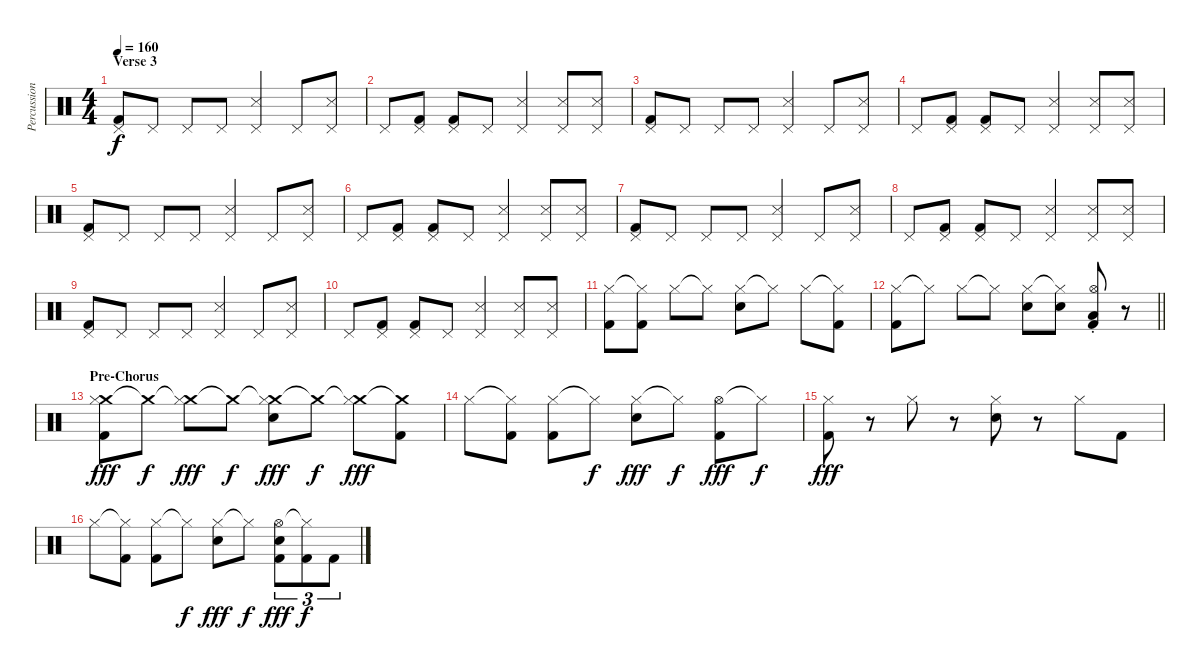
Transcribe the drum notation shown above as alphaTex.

\track ("Percussions" "Percussion") {instrument percussion}
\staff {score}
\articulation defaults
\ts (4 4)
\section ("" "Verse 3")
\tempo 160
\clef neutral
\ks c
("Pedal Hi-Hat (hit)" "Kick (hit) 2").8{dy f} "Pedal Hi-Hat (hit)".8 "Pedal Hi-Hat (hit)".8 "Pedal Hi-Hat (hit)".8 ("Pedal Hi-Hat (hit)" "Snare (side stick) 3").4 "Pedal Hi-Hat (hit)".8 ("Pedal Hi-Hat (hit)" "Snare (side stick) 3").8 |
"Pedal Hi-Hat (hit)".8 ("Pedal Hi-Hat (hit)" "Kick (hit) 2").8 ("Pedal Hi-Hat (hit)" "Kick (hit) 2").8 "Pedal Hi-Hat (hit)".8 ("Pedal Hi-Hat (hit)" "Snare (side stick) 3").4 ("Pedal Hi-Hat (hit)" "Snare (side stick) 3").8 ("Pedal Hi-Hat (hit)" "Snare (side stick) 3").8 |
("Pedal Hi-Hat (hit)" "Kick (hit) 2").8 "Pedal Hi-Hat (hit)".8 "Pedal Hi-Hat (hit)".8 "Pedal Hi-Hat (hit)".8 ("Pedal Hi-Hat (hit)" "Snare (side stick) 3").4 "Pedal Hi-Hat (hit)".8 ("Pedal Hi-Hat (hit)" "Snare (side stick) 3").8 |
"Pedal Hi-Hat (hit)".8 ("Pedal Hi-Hat (hit)" "Kick (hit) 2").8 ("Pedal Hi-Hat (hit)" "Kick (hit) 2").8 "Pedal Hi-Hat (hit)".8 ("Pedal Hi-Hat (hit)" "Snare (side stick) 3").4 ("Pedal Hi-Hat (hit)" "Snare (side stick) 3").8 ("Pedal Hi-Hat (hit)" "Snare (side stick) 3").8 |
("Pedal Hi-Hat (hit)" "Kick (hit) 2").8 "Pedal Hi-Hat (hit)".8 "Pedal Hi-Hat (hit)".8 "Pedal Hi-Hat (hit)".8 ("Pedal Hi-Hat (hit)" "Snare (side stick) 3").4 "Pedal Hi-Hat (hit)".8 ("Pedal Hi-Hat (hit)" "Snare (side stick) 3").8 |
"Pedal Hi-Hat (hit)".8 ("Pedal Hi-Hat (hit)" "Kick (hit) 2").8 ("Pedal Hi-Hat (hit)" "Kick (hit) 2").8 "Pedal Hi-Hat (hit)".8 ("Pedal Hi-Hat (hit)" "Snare (side stick) 3").4 ("Pedal Hi-Hat (hit)" "Snare (side stick) 3").8 ("Pedal Hi-Hat (hit)" "Snare (side stick) 3").8 |
("Pedal Hi-Hat (hit)" "Kick (hit) 2").8 "Pedal Hi-Hat (hit)".8 "Pedal Hi-Hat (hit)".8 "Pedal Hi-Hat (hit)".8 ("Pedal Hi-Hat (hit)" "Snare (side stick) 3").4 "Pedal Hi-Hat (hit)".8 ("Pedal Hi-Hat (hit)" "Snare (side stick) 3").8 |
"Pedal Hi-Hat (hit)".8 ("Pedal Hi-Hat (hit)" "Kick (hit) 2").8 ("Pedal Hi-Hat (hit)" "Kick (hit) 2").8 "Pedal Hi-Hat (hit)".8 ("Pedal Hi-Hat (hit)" "Snare (side stick) 3").4 ("Pedal Hi-Hat (hit)" "Snare (side stick) 3").8 ("Pedal Hi-Hat (hit)" "Snare (side stick) 3").8 |
("Pedal Hi-Hat (hit)" "Kick (hit) 2").8 "Pedal Hi-Hat (hit)".8 "Pedal Hi-Hat (hit)".8 "Pedal Hi-Hat (hit)".8 ("Pedal Hi-Hat (hit)" "Snare (side stick) 3").4 "Pedal Hi-Hat (hit)".8 ("Pedal Hi-Hat (hit)" "Snare (side stick) 3").8 |
"Pedal Hi-Hat (hit)".8 ("Pedal Hi-Hat (hit)" "Kick (hit) 2").8 ("Pedal Hi-Hat (hit)" "Kick (hit) 2").8 "Pedal Hi-Hat (hit)".8 ("Pedal Hi-Hat (hit)" "Snare (side stick) 3").4 ("Pedal Hi-Hat (hit)" "Snare (side stick) 3").8 ("Pedal Hi-Hat (hit)" "Snare (side stick) 3").8 |
("Hi-Hat (closed)" "Kick (hit) 2").8 ("Hi-Hat (closed)"{t} "Kick (hit) 2").8 "Hi-Hat (closed)".8 "Hi-Hat (closed)"{t}.8 ("Hi-Hat (closed)" "Snare (hit) 2").8 "Hi-Hat (closed)"{t}.8 "Hi-Hat (closed)".8 ("Hi-Hat (closed)"{t} "Kick (hit) 2").8 |
\barLineRight lightlight
("Hi-Hat (closed)" "Kick (hit) 2").8 "Hi-Hat (closed)"{t}.8 "Hi-Hat (closed)".8 "Hi-Hat (closed)"{t}.8 ("Hi-Hat (closed)" "Snare (hit) 2").8 ("Hi-Hat (closed)"{t} "Snare (hit) 2").8 ("Hi-Hat (open)"{st} "Low Floor Tom (hit)" "Kick (hit) 2").8 r.8 |
\section ("" "Pre-Chorus")
("Crash medium (hit)" "Hi-Hat (closed)" "Kick (hit) 2").8{dy fff} "Crash medium (hit)"{t}.8{dy f} ("Crash medium (hit)"{t} "Hi-Hat (closed)").8{dy fff} "Crash medium (hit)"{t}.8{dy f} ("Crash medium (hit)"{t} "Hi-Hat (closed)" "Snare (hit) 2").8{dy fff} "Crash medium (hit)"{t}.8{dy f} ("Crash medium (hit)"{t} "Hi-Hat (closed)").8{dy fff} ("Crash medium (hit)"{t} "Kick (hit) 2").8 |
"Hi-Hat (closed)".8 ("Hi-Hat (closed)"{t} "Kick (hit) 2").8 ("Hi-Hat (closed)" "Kick (hit) 2").8 "Hi-Hat (closed)"{t}.8{dy f} ("Hi-Hat (closed)" "Snare (hit) 2").8{dy fff} "Hi-Hat (closed)"{t}.8{dy f} ("Hi-Hat (open)" "Kick (hit) 2").8{dy fff} "Hi-Hat (closed)"{t}.8{dy f} |
("Hi-Hat (closed)" "Kick (hit) 2").8{dy fff} r.8 "Hi-Hat (closed)".8 r.8 ("Hi-Hat (closed)" "Snare (hit) 2").8 r.8 "Hi-Hat (closed)".8 "Kick (hit) 2".8 |
"Hi-Hat (closed)".8 ("Hi-Hat (closed)"{t} "Kick (hit) 2").8 ("Hi-Hat (closed)" "Kick (hit) 2").8 "Hi-Hat (closed)"{t}.8{dy f} ("Hi-Hat (closed)" "Snare (hit) 2").8{dy fff} "Hi-Hat (closed)"{t}.8{dy f} ("Hi-Hat (open)" "Snare (hit) 2" "Kick (hit) 2").8{tu (3 2) dy fff} ("Hi-Hat (closed)"{t} "Kick (hit) 2").8{tu (3 2) dy f} "Kick (hit) 2".8{tu (3 2)}
